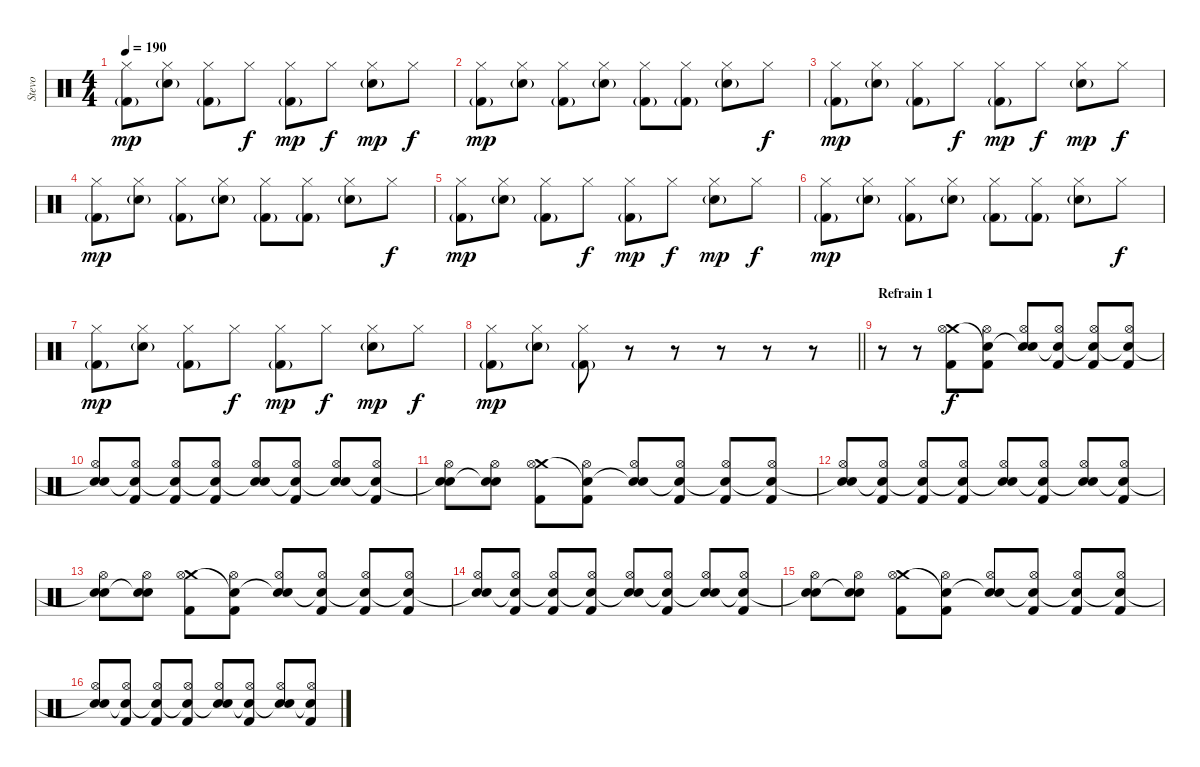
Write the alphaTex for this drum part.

\track ("Stevo" "Stevo") {instrument percussion}
\staff {score}
\articulation defaults
\ts (4 4)
\tempo 190
\clef neutral
\ks c
("Hi-Hat (closed)" "Kick (hit) 2"{g}).8{dy mp} ("Hi-Hat (closed)" "Electric Snare (hit)"{g}).8 ("Hi-Hat (closed)" "Kick (hit) 2"{g}).8 "Hi-Hat (closed)".8{dy f} ("Hi-Hat (closed)" "Kick (hit) 2"{g}).8{dy mp} "Hi-Hat (closed)".8{dy f} ("Hi-Hat (closed)" "Electric Snare (hit)"{g}).8{dy mp} "Hi-Hat (closed)".8{dy f} |
("Hi-Hat (closed)" "Kick (hit) 2"{g}).8{dy mp} ("Hi-Hat (closed)" "Electric Snare (hit)"{g}).8 ("Hi-Hat (closed)" "Kick (hit) 2"{g}).8 ("Hi-Hat (closed)" "Electric Snare (hit)"{g}).8 ("Hi-Hat (closed)" "Kick (hit) 2"{g}).8 ("Hi-Hat (closed)" "Kick (hit) 2"{g}).8 ("Hi-Hat (closed)" "Electric Snare (hit)"{g}).8 "Hi-Hat (closed)".8{dy f} |
("Hi-Hat (closed)" "Kick (hit) 2"{g}).8{dy mp} ("Hi-Hat (closed)" "Electric Snare (hit)"{g}).8 ("Hi-Hat (closed)" "Kick (hit) 2"{g}).8 "Hi-Hat (closed)".8{dy f} ("Hi-Hat (closed)" "Kick (hit) 2"{g}).8{dy mp} "Hi-Hat (closed)".8{dy f} ("Hi-Hat (closed)" "Electric Snare (hit)"{g}).8{dy mp} "Hi-Hat (closed)".8{dy f} |
("Hi-Hat (closed)" "Kick (hit) 2"{g}).8{dy mp} ("Hi-Hat (closed)" "Electric Snare (hit)"{g}).8 ("Hi-Hat (closed)" "Kick (hit) 2"{g}).8 ("Hi-Hat (closed)" "Electric Snare (hit)"{g}).8 ("Hi-Hat (closed)" "Kick (hit) 2"{g}).8 ("Hi-Hat (closed)" "Kick (hit) 2"{g}).8 ("Hi-Hat (closed)" "Electric Snare (hit)"{g}).8 "Hi-Hat (closed)".8{dy f} |
("Hi-Hat (closed)" "Kick (hit) 2"{g}).8{dy mp} ("Hi-Hat (closed)" "Electric Snare (hit)"{g}).8 ("Hi-Hat (closed)" "Kick (hit) 2"{g}).8 "Hi-Hat (closed)".8{dy f} ("Hi-Hat (closed)" "Kick (hit) 2"{g}).8{dy mp} "Hi-Hat (closed)".8{dy f} ("Hi-Hat (closed)" "Electric Snare (hit)"{g}).8{dy mp} "Hi-Hat (closed)".8{dy f} |
("Hi-Hat (closed)" "Kick (hit) 2"{g}).8{dy mp} ("Hi-Hat (closed)" "Electric Snare (hit)"{g}).8 ("Hi-Hat (closed)" "Kick (hit) 2"{g}).8 ("Hi-Hat (closed)" "Electric Snare (hit)"{g}).8 ("Hi-Hat (closed)" "Kick (hit) 2"{g}).8 ("Hi-Hat (closed)" "Kick (hit) 2"{g}).8 ("Hi-Hat (closed)" "Electric Snare (hit)"{g}).8 "Hi-Hat (closed)".8{dy f} |
("Hi-Hat (closed)" "Kick (hit) 2"{g}).8{dy mp} ("Hi-Hat (closed)" "Electric Snare (hit)"{g}).8 ("Hi-Hat (closed)" "Kick (hit) 2"{g}).8 "Hi-Hat (closed)".8{dy f} ("Hi-Hat (closed)" "Kick (hit) 2"{g}).8{dy mp} "Hi-Hat (closed)".8{dy f} ("Hi-Hat (closed)" "Electric Snare (hit)"{g}).8{dy mp} "Hi-Hat (closed)".8{dy f} |
\barLineRight lightlight
("Hi-Hat (closed)" "Kick (hit) 2"{g}).8{dy mp} ("Hi-Hat (closed)" "Electric Snare (hit)"{g}).8 ("Hi-Hat (closed)" "Kick (hit) 2"{g}).8 r.8 r.8 r.8 r.8 r.8 |
\section ("" "Refrain 1")
r.8 r.8 ("Crash medium (hit)" "Hi-Hat (open)" "Kick (hit) 2").8{dy f} ("Snare (hit)"{t} "Hi-Hat (open)" "Kick (hit) 2").8 ("Snare (hit)"{t} "Hi-Hat (open)" "Electric Snare (hit)").8 ("Snare (hit)"{t} "Hi-Hat (open)" "Kick (hit) 2").8 ("Snare (hit)"{t} "Hi-Hat (open)" "Kick (hit) 2").8 ("Snare (hit)"{t} "Hi-Hat (open)" "Kick (hit) 2").8 |
("Snare (hit)"{t} "Hi-Hat (open)" "Electric Snare (hit)").8 ("Snare (hit)"{t} "Hi-Hat (open)" "Kick (hit) 2").8 ("Snare (hit)"{t} "Hi-Hat (open)" "Kick (hit) 2").8 ("Snare (hit)"{t} "Hi-Hat (open)" "Kick (hit) 2").8 ("Snare (hit)"{t} "Hi-Hat (open)" "Electric Snare (hit)").8 ("Snare (hit)"{t} "Hi-Hat (open)" "Kick (hit) 2").8 ("Snare (hit)"{t} "Hi-Hat (open)" "Electric Snare (hit)").8 ("Snare (hit)"{t} "Hi-Hat (open)" "Kick (hit) 2").8 |
("Snare (hit)"{t} "Hi-Hat (open)" "Electric Snare (hit)").8 ("Snare (hit)"{t} "Hi-Hat (open)" "Electric Snare (hit)").8 ("Crash medium (hit)" "Hi-Hat (open)" "Kick (hit) 2").8 ("Snare (hit)"{t} "Hi-Hat (open)" "Kick (hit) 2").8 ("Snare (hit)"{t} "Hi-Hat (open)" "Electric Snare (hit)").8 ("Snare (hit)"{t} "Hi-Hat (open)" "Kick (hit) 2").8 ("Snare (hit)"{t} "Hi-Hat (open)" "Kick (hit) 2").8 ("Snare (hit)"{t} "Hi-Hat (open)" "Kick (hit) 2").8 |
("Snare (hit)"{t} "Hi-Hat (open)" "Electric Snare (hit)").8 ("Snare (hit)"{t} "Hi-Hat (open)" "Kick (hit) 2").8 ("Snare (hit)"{t} "Hi-Hat (open)" "Kick (hit) 2").8 ("Snare (hit)"{t} "Hi-Hat (open)" "Kick (hit) 2").8 ("Snare (hit)"{t} "Hi-Hat (open)" "Electric Snare (hit)").8 ("Snare (hit)"{t} "Hi-Hat (open)" "Kick (hit) 2").8 ("Snare (hit)"{t} "Hi-Hat (open)" "Electric Snare (hit)").8 ("Snare (hit)"{t} "Hi-Hat (open)" "Kick (hit) 2").8 |
("Snare (hit)"{t} "Hi-Hat (open)" "Electric Snare (hit)").8 ("Snare (hit)"{t} "Hi-Hat (open)" "Electric Snare (hit)").8 ("Crash medium (hit)" "Hi-Hat (open)" "Kick (hit) 2").8 ("Snare (hit)"{t} "Hi-Hat (open)" "Kick (hit) 2").8 ("Snare (hit)"{t} "Hi-Hat (open)" "Electric Snare (hit)").8 ("Snare (hit)"{t} "Hi-Hat (open)" "Kick (hit) 2").8 ("Snare (hit)"{t} "Hi-Hat (open)" "Kick (hit) 2").8 ("Snare (hit)"{t} "Hi-Hat (open)" "Kick (hit) 2").8 |
("Snare (hit)"{t} "Hi-Hat (open)" "Electric Snare (hit)").8 ("Snare (hit)"{t} "Hi-Hat (open)" "Kick (hit) 2").8 ("Snare (hit)"{t} "Hi-Hat (open)" "Kick (hit) 2").8 ("Snare (hit)"{t} "Hi-Hat (open)" "Kick (hit) 2").8 ("Snare (hit)"{t} "Hi-Hat (open)" "Electric Snare (hit)").8 ("Snare (hit)"{t} "Hi-Hat (open)" "Kick (hit) 2").8 ("Snare (hit)"{t} "Hi-Hat (open)" "Electric Snare (hit)").8 ("Snare (hit)"{t} "Hi-Hat (open)" "Kick (hit) 2").8 |
("Snare (hit)"{t} "Hi-Hat (open)" "Electric Snare (hit)").8 ("Snare (hit)"{t} "Hi-Hat (open)" "Electric Snare (hit)").8 ("Crash medium (hit)" "Hi-Hat (open)" "Kick (hit) 2").8 ("Snare (hit)"{t} "Hi-Hat (open)" "Kick (hit) 2").8 ("Snare (hit)"{t} "Hi-Hat (open)" "Electric Snare (hit)").8 ("Snare (hit)"{t} "Hi-Hat (open)" "Kick (hit) 2").8 ("Snare (hit)"{t} "Hi-Hat (open)" "Kick (hit) 2").8 ("Snare (hit)"{t} "Hi-Hat (open)" "Kick (hit) 2").8 |
("Snare (hit)"{t} "Hi-Hat (open)" "Electric Snare (hit)").8 ("Snare (hit)"{t} "Hi-Hat (open)" "Kick (hit) 2").8 ("Snare (hit)"{t} "Hi-Hat (open)" "Kick (hit) 2").8 ("Snare (hit)"{t} "Hi-Hat (open)" "Kick (hit) 2").8 ("Snare (hit)"{t} "Hi-Hat (open)" "Electric Snare (hit)").8 ("Snare (hit)"{t} "Hi-Hat (open)" "Kick (hit) 2").8 ("Snare (hit)"{t} "Hi-Hat (open)" "Electric Snare (hit)").8 ("Snare (hit)"{t} "Hi-Hat (open)" "Kick (hit) 2").8
